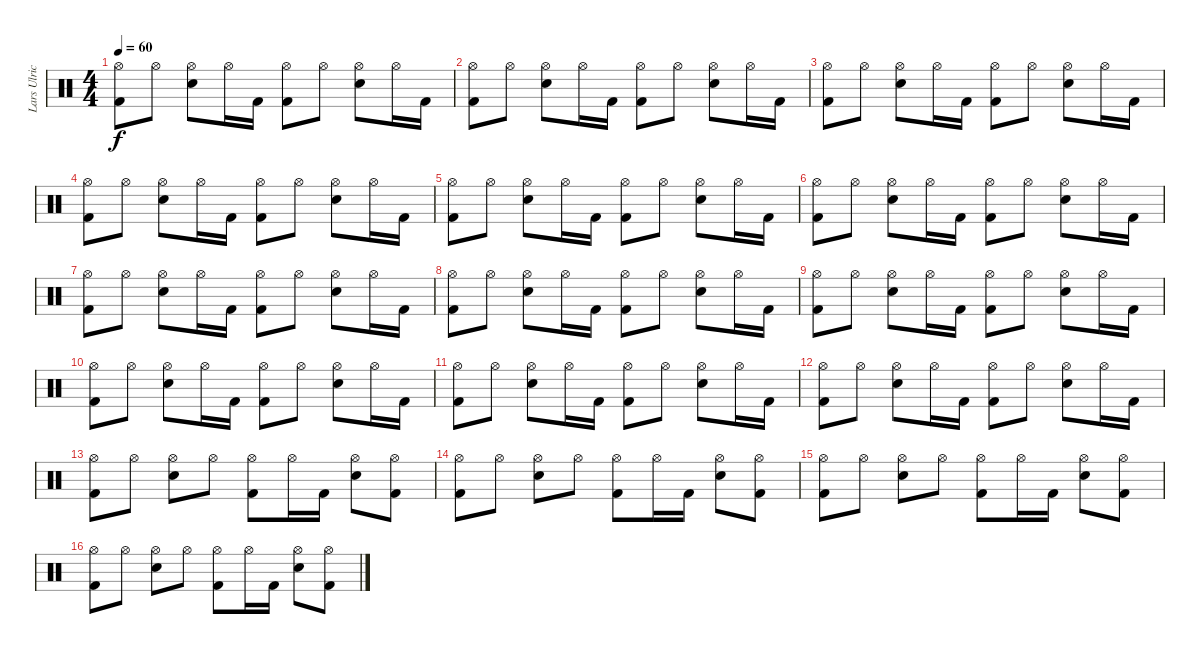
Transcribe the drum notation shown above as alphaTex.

\track ("Lars Ulrich" "Lars Ulric") {instrument percussion}
\staff {score}
\articulation defaults
\ts (4 4)
\tempo 60
\clef neutral
\ks c
("Kick (hit) 2" "Hi-Hat (open)").8{dy f} "Hi-Hat (open)".8 ("Snare (hit) 2" "Hi-Hat (open)").8 "Hi-Hat (open)".16 "Kick (hit) 2".16 ("Kick (hit) 2" "Hi-Hat (open)").8 "Hi-Hat (open)".8 ("Snare (hit) 2" "Hi-Hat (open)").8 "Hi-Hat (open)".16 "Kick (hit) 2".16 |
("Kick (hit) 2" "Hi-Hat (open)").8 "Hi-Hat (open)".8 ("Snare (hit) 2" "Hi-Hat (open)").8 "Hi-Hat (open)".16 "Kick (hit) 2".16 ("Kick (hit) 2" "Hi-Hat (open)").8 "Hi-Hat (open)".8 ("Snare (hit) 2" "Hi-Hat (open)").8 "Hi-Hat (open)".16 "Kick (hit) 2".16 |
("Kick (hit) 2" "Hi-Hat (open)").8 "Hi-Hat (open)".8 ("Snare (hit) 2" "Hi-Hat (open)").8 "Hi-Hat (open)".16 "Kick (hit) 2".16 ("Kick (hit) 2" "Hi-Hat (open)").8 "Hi-Hat (open)".8 ("Snare (hit) 2" "Hi-Hat (open)").8 "Hi-Hat (open)".16 "Kick (hit) 2".16 |
("Kick (hit) 2" "Hi-Hat (open)").8 "Hi-Hat (open)".8 ("Snare (hit) 2" "Hi-Hat (open)").8 "Hi-Hat (open)".16 "Kick (hit) 2".16 ("Kick (hit) 2" "Hi-Hat (open)").8 "Hi-Hat (open)".8 ("Snare (hit) 2" "Hi-Hat (open)").8 "Hi-Hat (open)".16 "Kick (hit) 2".16 |
("Kick (hit) 2" "Hi-Hat (open)").8 "Hi-Hat (open)".8 ("Snare (hit) 2" "Hi-Hat (open)").8 "Hi-Hat (open)".16 "Kick (hit) 2".16 ("Kick (hit) 2" "Hi-Hat (open)").8 "Hi-Hat (open)".8 ("Snare (hit) 2" "Hi-Hat (open)").8 "Hi-Hat (open)".16 "Kick (hit) 2".16 |
("Kick (hit) 2" "Hi-Hat (open)").8 "Hi-Hat (open)".8 ("Snare (hit) 2" "Hi-Hat (open)").8 "Hi-Hat (open)".16 "Kick (hit) 2".16 ("Kick (hit) 2" "Hi-Hat (open)").8 "Hi-Hat (open)".8 ("Snare (hit) 2" "Hi-Hat (open)").8 "Hi-Hat (open)".16 "Kick (hit) 2".16 |
("Kick (hit) 2" "Hi-Hat (open)").8 "Hi-Hat (open)".8 ("Snare (hit) 2" "Hi-Hat (open)").8 "Hi-Hat (open)".16 "Kick (hit) 2".16 ("Kick (hit) 2" "Hi-Hat (open)").8 "Hi-Hat (open)".8 ("Snare (hit) 2" "Hi-Hat (open)").8 "Hi-Hat (open)".16 "Kick (hit) 2".16 |
("Kick (hit) 2" "Hi-Hat (open)").8 "Hi-Hat (open)".8 ("Snare (hit) 2" "Hi-Hat (open)").8 "Hi-Hat (open)".16 "Kick (hit) 2".16 ("Kick (hit) 2" "Hi-Hat (open)").8 "Hi-Hat (open)".8 ("Snare (hit) 2" "Hi-Hat (open)").8 "Hi-Hat (open)".16 "Kick (hit) 2".16 |
("Kick (hit) 2" "Hi-Hat (open)").8 "Hi-Hat (open)".8 ("Snare (hit) 2" "Hi-Hat (open)").8 "Hi-Hat (open)".16 "Kick (hit) 2".16 ("Kick (hit) 2" "Hi-Hat (open)").8 "Hi-Hat (open)".8 ("Snare (hit) 2" "Hi-Hat (open)").8 "Hi-Hat (open)".16 "Kick (hit) 2".16 |
("Kick (hit) 2" "Hi-Hat (open)").8 "Hi-Hat (open)".8 ("Snare (hit) 2" "Hi-Hat (open)").8 "Hi-Hat (open)".16 "Kick (hit) 2".16 ("Kick (hit) 2" "Hi-Hat (open)").8 "Hi-Hat (open)".8 ("Snare (hit) 2" "Hi-Hat (open)").8 "Hi-Hat (open)".16 "Kick (hit) 2".16 |
("Kick (hit) 2" "Hi-Hat (open)").8 "Hi-Hat (open)".8 ("Snare (hit) 2" "Hi-Hat (open)").8 "Hi-Hat (open)".16 "Kick (hit) 2".16 ("Kick (hit) 2" "Hi-Hat (open)").8 "Hi-Hat (open)".8 ("Snare (hit) 2" "Hi-Hat (open)").8 "Hi-Hat (open)".16 "Kick (hit) 2".16 |
("Kick (hit) 2" "Hi-Hat (open)").8 "Hi-Hat (open)".8 ("Snare (hit) 2" "Hi-Hat (open)").8 "Hi-Hat (open)".16 "Kick (hit) 2".16 ("Kick (hit) 2" "Hi-Hat (open)").8 "Hi-Hat (open)".8 ("Snare (hit) 2" "Hi-Hat (open)").8 "Hi-Hat (open)".16 "Kick (hit) 2".16 |
("Kick (hit) 2" "Hi-Hat (open)").8 "Hi-Hat (open)".8 ("Snare (hit) 2" "Hi-Hat (open)").8 "Hi-Hat (open)".8 ("Kick (hit) 2" "Hi-Hat (open)").8 "Hi-Hat (open)".16 "Kick (hit) 2".16 ("Snare (hit) 2" "Hi-Hat (open)").8 ("Kick (hit) 2" "Hi-Hat (open)").8 |
("Kick (hit) 2" "Hi-Hat (open)").8 "Hi-Hat (open)".8 ("Snare (hit) 2" "Hi-Hat (open)").8 "Hi-Hat (open)".8 ("Kick (hit) 2" "Hi-Hat (open)").8 "Hi-Hat (open)".16 "Kick (hit) 2".16 ("Snare (hit) 2" "Hi-Hat (open)").8 ("Kick (hit) 2" "Hi-Hat (open)").8 |
("Kick (hit) 2" "Hi-Hat (open)").8 "Hi-Hat (open)".8 ("Snare (hit) 2" "Hi-Hat (open)").8 "Hi-Hat (open)".8 ("Kick (hit) 2" "Hi-Hat (open)").8 "Hi-Hat (open)".16 "Kick (hit) 2".16 ("Snare (hit) 2" "Hi-Hat (open)").8 ("Kick (hit) 2" "Hi-Hat (open)").8 |
("Kick (hit) 2" "Hi-Hat (open)").8 "Hi-Hat (open)".8 ("Snare (hit) 2" "Hi-Hat (open)").8 "Hi-Hat (open)".8 ("Kick (hit) 2" "Hi-Hat (open)").8 "Hi-Hat (open)".16 "Kick (hit) 2".16 ("Snare (hit) 2" "Hi-Hat (open)").8 ("Kick (hit) 2" "Hi-Hat (open)").8
